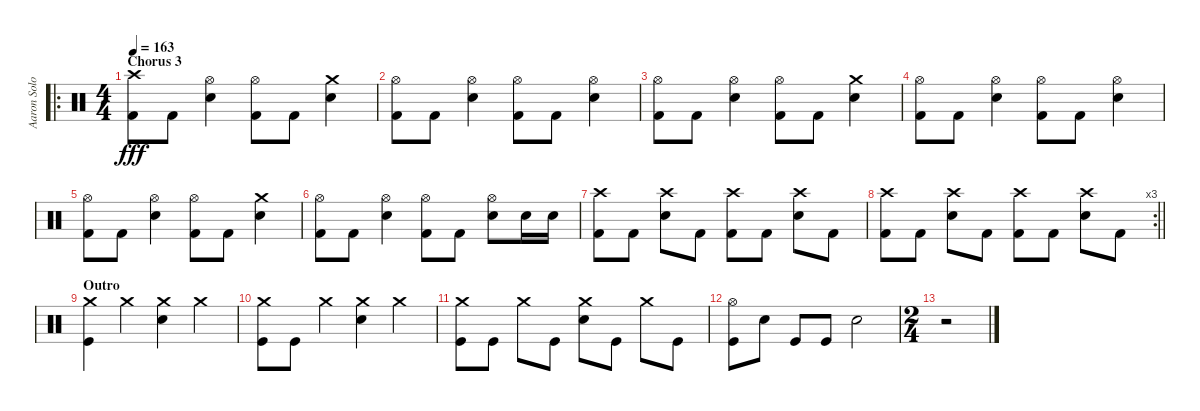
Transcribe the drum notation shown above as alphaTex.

\track ("Aaron Solowoniuk - Schlagzeug" "Aaron Solo") {instrument percussion}
\staff {score}
\articulation defaults
\ro
\ts (4 4)
\section ("" "Chorus 3")
\tempo 163
\clef neutral
\ks c
("Crash high (hit)" "Kick (hit) 2").8{dy fff} "Kick (hit) 2".8 ("Hi-Hat (open)" "Electric Snare (hit)").4 ("Hi-Hat (open)" "Kick (hit) 2").8 "Kick (hit) 2".8 ("Crash medium (hit)" "Electric Snare (hit)").4 |
("Hi-Hat (open)" "Kick (hit) 2").8 "Kick (hit) 2".8 ("Hi-Hat (open)" "Electric Snare (hit)").4 ("Hi-Hat (open)" "Kick (hit) 2").8 "Kick (hit) 2".8 ("Hi-Hat (open)" "Electric Snare (hit)").4 |
("Hi-Hat (open)" "Kick (hit) 2").8 "Kick (hit) 2".8 ("Hi-Hat (open)" "Electric Snare (hit)").4 ("Hi-Hat (open)" "Kick (hit) 2").8 "Kick (hit) 2".8 ("Crash medium (hit)" "Electric Snare (hit)").4 |
("Hi-Hat (open)" "Kick (hit) 2").8 "Kick (hit) 2".8 ("Hi-Hat (open)" "Electric Snare (hit)").4 ("Hi-Hat (open)" "Kick (hit) 2").8 "Kick (hit) 2".8 ("Hi-Hat (open)" "Electric Snare (hit)").4 |
("Hi-Hat (open)" "Kick (hit) 2").8 "Kick (hit) 2".8 ("Hi-Hat (open)" "Electric Snare (hit)").4 ("Hi-Hat (open)" "Kick (hit) 2").8 "Kick (hit) 2".8 ("Crash medium (hit)" "Electric Snare (hit)").4 |
("Hi-Hat (open)" "Kick (hit) 2").8 "Kick (hit) 2".8 ("Hi-Hat (open)" "Electric Snare (hit)").4 ("Hi-Hat (open)" "Kick (hit) 2").8 "Kick (hit) 2".8 ("Hi-Hat (open)" "Electric Snare (hit)").8 "Electric Snare (hit)".16 "Electric Snare (hit)".16 |
("Crash high (hit)" "Kick (hit) 2").8 "Kick (hit) 2".8 ("Crash high (hit)" "Electric Snare (hit)").8 "Kick (hit) 2".8 ("Crash high (hit)" "Kick (hit) 2").8 "Kick (hit) 2".8 ("Crash high (hit)" "Electric Snare (hit)").8 "Kick (hit) 2".8 |
\rc 3
\barLineRight lightlight
("Crash high (hit)" "Kick (hit) 2").8 "Kick (hit) 2".8 ("Crash high (hit)" "Electric Snare (hit)").8 "Kick (hit) 2".8 ("Crash high (hit)" "Kick (hit) 2").8 "Kick (hit) 2".8 ("Crash high (hit)" "Electric Snare (hit)").8 "Kick (hit) 2".8 |
\section ("" "Outro")
("Crash medium (hit)" "Kick (hit)").4 "Crash medium (hit)".4 ("Crash medium (hit)" "Electric Snare (hit)").4 "Crash medium (hit)".4 |
("Crash medium (hit)" "Kick (hit)").8 "Kick (hit)".8 "Crash medium (hit)".4 ("Crash medium (hit)" "Electric Snare (hit)").4 "Crash medium (hit)".4 |
("Crash medium (hit)" "Kick (hit)").8 "Kick (hit)".8 "Crash medium (hit)".8 "Kick (hit)".8 ("Crash medium (hit)" "Electric Snare (hit)").8 "Kick (hit)".8 "Crash medium (hit)".8 "Kick (hit)".8 |
("Kick (hit)" "Hi-Hat (open)").8 "Electric Snare (hit)".8 "Kick (hit)".8 "Kick (hit)".8 "Electric Snare (hit)".2 |
\ts (2 4)
r.2{volume 0}
